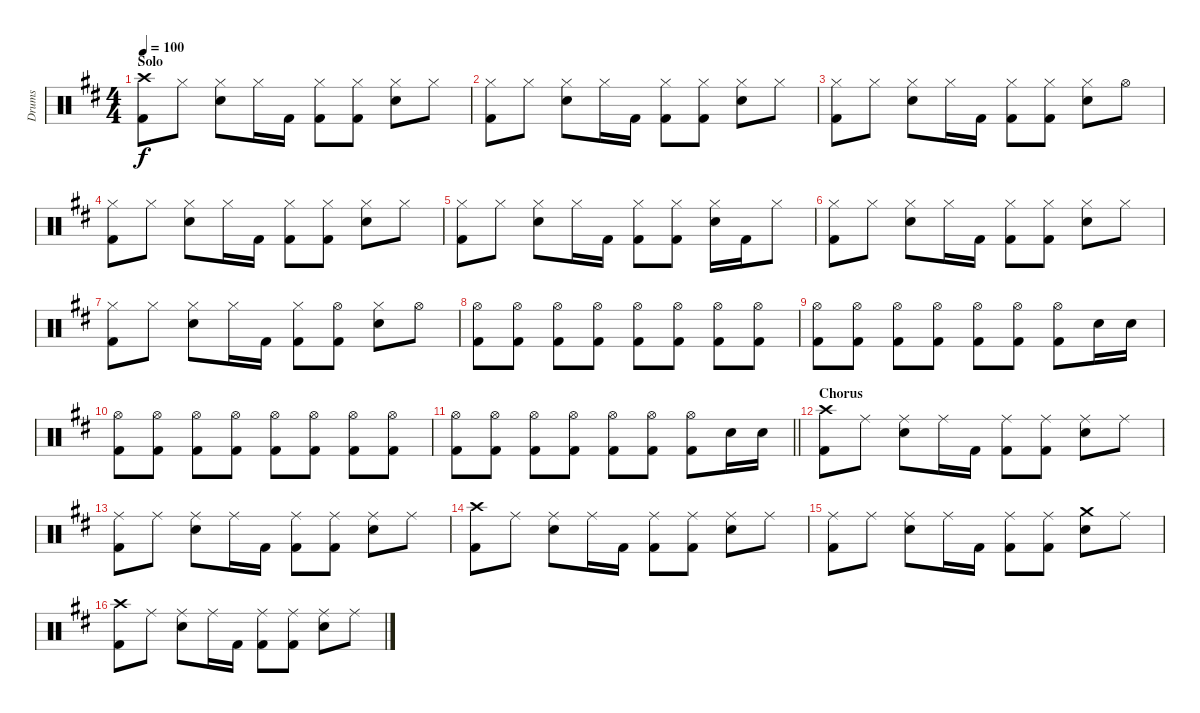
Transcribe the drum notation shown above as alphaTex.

\track ("Drums" "Drums") {instrument percussion}
\staff {score}
\articulation defaults
\ts (4 4)
\section ("" "Solo")
\tempo 100
\clef neutral
\ks d
("Crash high (hit)" "Kick (hit) 2").8{dy f} "Hi-Hat (closed)".8 ("Hi-Hat (closed)" "Snare (hit) 2").8 "Hi-Hat (closed)".16 "Kick (hit) 2".16 ("Hi-Hat (closed)" "Kick (hit) 2").8 ("Hi-Hat (closed)" "Kick (hit) 2").8 ("Hi-Hat (closed)" "Snare (hit) 2").8 "Hi-Hat (closed)".8 |
("Hi-Hat (closed)" "Kick (hit) 2").8 "Hi-Hat (closed)".8 ("Hi-Hat (closed)" "Snare (hit) 2").8 "Hi-Hat (closed)".16 "Kick (hit) 2".16 ("Hi-Hat (closed)" "Kick (hit) 2").8 ("Hi-Hat (closed)" "Kick (hit) 2").8 ("Hi-Hat (closed)" "Snare (hit) 2").8 "Hi-Hat (closed)".8 |
("Hi-Hat (closed)" "Kick (hit) 2").8 "Hi-Hat (closed)".8 ("Hi-Hat (closed)" "Snare (hit) 2").8 "Hi-Hat (closed)".16 "Kick (hit) 2".16 ("Hi-Hat (closed)" "Kick (hit) 2").8 ("Hi-Hat (closed)" "Kick (hit) 2").8 ("Hi-Hat (closed)" "Snare (hit) 2").8 "Hi-Hat (open)".8 |
("Hi-Hat (closed)" "Kick (hit) 2").8 "Hi-Hat (closed)".8 ("Hi-Hat (closed)" "Snare (hit) 2").8 "Hi-Hat (closed)".16 "Kick (hit) 2".16 ("Hi-Hat (closed)" "Kick (hit) 2").8 ("Hi-Hat (closed)" "Kick (hit) 2").8 ("Hi-Hat (closed)" "Snare (hit) 2").8 "Hi-Hat (closed)".8 |
("Hi-Hat (closed)" "Kick (hit) 2").8 "Hi-Hat (closed)".8 ("Hi-Hat (closed)" "Snare (hit) 2").8 "Hi-Hat (closed)".16 "Kick (hit) 2".16 ("Hi-Hat (closed)" "Kick (hit) 2").8 ("Hi-Hat (closed)" "Kick (hit) 2").8 ("Hi-Hat (closed)" "Snare (hit) 2").16 "Kick (hit) 2".16 "Hi-Hat (closed)".8 |
("Hi-Hat (closed)" "Kick (hit) 2").8 "Hi-Hat (closed)".8 ("Hi-Hat (closed)" "Snare (hit) 2").8 "Hi-Hat (closed)".16 "Kick (hit) 2".16 ("Hi-Hat (closed)" "Kick (hit) 2").8 ("Hi-Hat (closed)" "Kick (hit) 2").8 ("Hi-Hat (closed)" "Snare (hit) 2").8 "Hi-Hat (closed)".8 |
("Hi-Hat (closed)" "Kick (hit) 2").8 "Hi-Hat (closed)".8 ("Hi-Hat (closed)" "Snare (hit) 2").8 "Hi-Hat (closed)".16 "Kick (hit) 2".16 ("Hi-Hat (closed)" "Kick (hit) 2").8 ("Hi-Hat (open)" "Kick (hit) 2").8 ("Hi-Hat (closed)" "Snare (hit) 2").8 "Hi-Hat (open)".8 |
("Hi-Hat (open)" "Kick (hit) 2").8 ("Hi-Hat (open)" "Kick (hit) 2").8 ("Hi-Hat (open)" "Kick (hit) 2").8 ("Hi-Hat (open)" "Kick (hit) 2").8 ("Hi-Hat (open)" "Kick (hit) 2").8 ("Hi-Hat (open)" "Kick (hit) 2").8 ("Hi-Hat (open)" "Kick (hit) 2").8 ("Hi-Hat (open)" "Kick (hit) 2").8 |
("Hi-Hat (open)" "Kick (hit) 2").8 ("Hi-Hat (open)" "Kick (hit) 2").8 ("Hi-Hat (open)" "Kick (hit) 2").8 ("Hi-Hat (open)" "Kick (hit) 2").8 ("Hi-Hat (open)" "Kick (hit) 2").8 ("Hi-Hat (open)" "Kick (hit) 2").8 ("Hi-Hat (open)" "Kick (hit) 2").8 "Snare (hit) 2".16 "Snare (hit) 2".16 |
("Hi-Hat (open)" "Kick (hit) 2").8 ("Hi-Hat (open)" "Kick (hit) 2").8 ("Hi-Hat (open)" "Kick (hit) 2").8 ("Hi-Hat (open)" "Kick (hit) 2").8 ("Hi-Hat (open)" "Kick (hit) 2").8 ("Hi-Hat (open)" "Kick (hit) 2").8 ("Hi-Hat (open)" "Kick (hit) 2").8 ("Hi-Hat (open)" "Kick (hit) 2").8 |
\barLineRight lightlight
("Hi-Hat (open)" "Kick (hit) 2").8 ("Hi-Hat (open)" "Kick (hit) 2").8 ("Hi-Hat (open)" "Kick (hit) 2").8 ("Hi-Hat (open)" "Kick (hit) 2").8 ("Hi-Hat (open)" "Kick (hit) 2").8 ("Hi-Hat (open)" "Kick (hit) 2").8 ("Hi-Hat (open)" "Kick (hit) 2").8 "Snare (hit) 2".16 "Snare (hit) 2".16 |
\section ("" "Chorus")
("Crash high (hit)" "Kick (hit) 2").8 "Ride (middle)".8 ("Ride (middle)" "Snare (hit) 2").8 "Ride (middle)".16 "Kick (hit) 2".16 ("Ride (middle)" "Kick (hit) 2").8 ("Ride (middle)" "Kick (hit) 2").8 ("Ride (middle)" "Snare (hit) 2").8 "Ride (middle)".8 |
("Ride (middle)" "Kick (hit) 2").8 "Ride (middle)".8 ("Ride (middle)" "Snare (hit) 2").8 "Ride (middle)".16 "Kick (hit) 2".16 ("Ride (middle)" "Kick (hit) 2").8 ("Ride (middle)" "Kick (hit) 2").8 ("Ride (middle)" "Snare (hit) 2").8 "Ride (middle)".8 |
("Crash high (hit)" "Kick (hit) 2").8 "Ride (middle)".8 ("Ride (middle)" "Snare (hit) 2").8 "Ride (middle)".16 "Kick (hit) 2".16 ("Ride (middle)" "Kick (hit) 2").8 ("Ride (middle)" "Kick (hit) 2").8 ("Ride (middle)" "Snare (hit) 2").8 "Ride (middle)".8 |
("Ride (middle)" "Kick (hit) 2").8 "Ride (middle)".8 ("Ride (middle)" "Snare (hit) 2").8 "Ride (middle)".16 "Kick (hit) 2".16 ("Ride (middle)" "Kick (hit) 2").8 ("Ride (middle)" "Kick (hit) 2").8 ("Crash medium (hit)" "Snare (hit) 2").8 "Ride (middle)".8 |
("Crash high (hit)" "Kick (hit) 2").8 "Ride (middle)".8 ("Ride (middle)" "Snare (hit) 2").8 "Ride (middle)".16 "Kick (hit) 2".16 ("Ride (middle)" "Kick (hit) 2").8 ("Ride (middle)" "Kick (hit) 2").8 ("Ride (middle)" "Snare (hit) 2").8 "Ride (middle)".8
